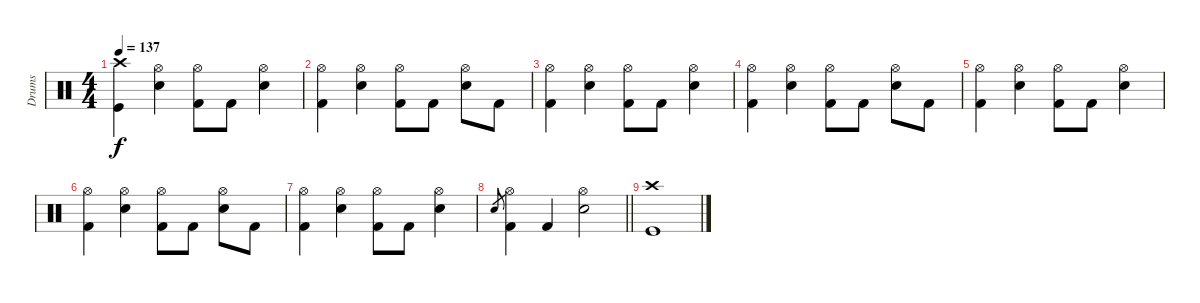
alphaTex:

\track ("Drums" "Drums") {instrument percussion}
\staff {score}
\articulation defaults
\ts (4 4)
\tempo 137
\clef neutral
\ks c
("Crash high (hit)" "Kick (hit)").4{dy f} ("Hi-Hat (open)" "Electric Snare (hit)").4 ("Hi-Hat (open)" "Kick (hit) 2").8 "Kick (hit) 2".8 ("Hi-Hat (open)" "Electric Snare (hit)").4 |
("Hi-Hat (open)" "Kick (hit) 2").4 ("Hi-Hat (open)" "Electric Snare (hit)").4 ("Hi-Hat (open)" "Kick (hit) 2").8 "Kick (hit) 2".8 ("Hi-Hat (open)" "Electric Snare (hit)").8 "Kick (hit) 2".8 |
("Hi-Hat (open)" "Kick (hit) 2").4 ("Hi-Hat (open)" "Electric Snare (hit)").4 ("Hi-Hat (open)" "Kick (hit) 2").8 "Kick (hit) 2".8 ("Hi-Hat (open)" "Electric Snare (hit)").4 |
("Hi-Hat (open)" "Kick (hit) 2").4 ("Hi-Hat (open)" "Electric Snare (hit)").4 ("Hi-Hat (open)" "Kick (hit) 2").8 "Kick (hit) 2".8 ("Hi-Hat (open)" "Electric Snare (hit)").8 "Kick (hit) 2".8 |
("Hi-Hat (open)" "Kick (hit) 2").4 ("Hi-Hat (open)" "Electric Snare (hit)").4 ("Hi-Hat (open)" "Kick (hit) 2").8 "Kick (hit) 2".8 ("Hi-Hat (open)" "Electric Snare (hit)").4 |
("Hi-Hat (open)" "Kick (hit) 2").4 ("Hi-Hat (open)" "Electric Snare (hit)").4 ("Hi-Hat (open)" "Kick (hit) 2").8 "Kick (hit) 2".8 ("Hi-Hat (open)" "Electric Snare (hit)").8 "Kick (hit) 2".8 |
("Hi-Hat (open)" "Kick (hit) 2").4 ("Hi-Hat (open)" "Electric Snare (hit)").4 ("Hi-Hat (open)" "Kick (hit) 2").8 "Kick (hit) 2".8 ("Hi-Hat (open)" "Electric Snare (hit)").4 |
\barLineRight lightlight "Electric Snare (hit)".8{gr}
("Hi-Hat (open)" "Kick (hit) 2").4 "Kick (hit) 2".4 ("Hi-Hat (open)" "Electric Snare (hit)").2 |
("Crash high (hit)" "Kick (hit)").1
